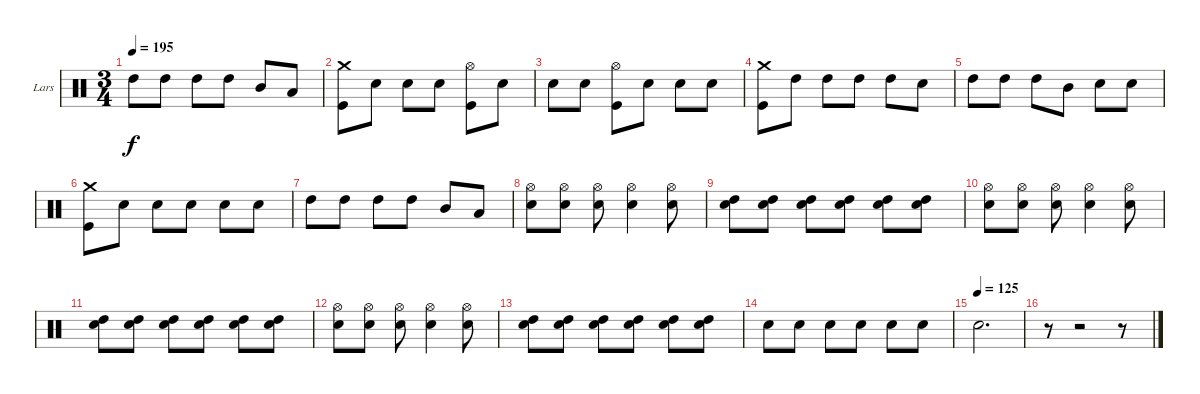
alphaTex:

\bracketExtendMode groupsimilarinstruments
\firstSystemTrackNameOrientation horizontal
\otherSystemsTrackNameOrientation horizontal
\track ("Drumkit" "Lars") {instrument percussion}
\staff {score}
\articulation defaults
\ts (3 4)
\tempo 195
\clef neutral
\ks c "High Tom (hit)".8{dy f} "High Tom (hit)".8 "High Tom (hit)".8 "High Tom (hit)".8 "Mid Tom (hit)".8 "Low Tom (hit)".8
|
("Crash medium (hit)" "Kick (hit)").8 "Snare (hit) 2".8 "Snare (hit) 2".8 "Snare (hit) 2".8 ("Hi-Hat (open)" "Kick (hit)").8 "Snare (hit) 2".8 |
"Snare (hit) 2".8 "Snare (hit) 2".8 ("Hi-Hat (open)" "Kick (hit)").8 "Snare (hit) 2".8 "Snare (hit) 2".8 "Snare (hit) 2".8 |
("Crash medium (hit)" "Kick (hit)").8 "High Tom (hit)".8 "High Tom (hit)".8 "High Tom (hit)".8 "High Tom (hit)".8 "Snare (hit) 2".8 |
"High Tom (hit)".8 "High Tom (hit)".8 "High Tom (hit)".8 "Mid Tom (hit)".8 "Snare (hit) 2".8 "Snare (hit) 2".8 |
("Crash medium (hit)" "Kick (hit)").8 "Snare (hit) 2".8 "Snare (hit) 2".8 "Snare (hit) 2".8 "Snare (hit) 2".8 "Snare (hit) 2".8 |
"High Tom (hit)".8 "High Tom (hit)".8 "High Tom (hit)".8 "High Tom (hit)".8 "Mid Tom (hit)".8 "Low Tom (hit)".8 |
("Hi-Hat (open)" "Snare (hit) 2").8 ("Hi-Hat (open)" "Snare (hit) 2").8 ("Hi-Hat (open)" "Snare (hit) 2").8 ("Hi-Hat (open)" "Snare (hit) 2").4 ("Hi-Hat (open)" "Snare (hit) 2").8 |
("Snare (hit) 2" "High Tom (hit)").8 ("Snare (hit) 2" "High Tom (hit)").8 ("Snare (hit) 2" "High Tom (hit)").8 ("Snare (hit) 2" "High Tom (hit)").8 ("Snare (hit) 2" "High Tom (hit)").8 ("Snare (hit) 2" "High Tom (hit)").8 |
("Hi-Hat (open)" "Snare (hit) 2").8 ("Hi-Hat (open)" "Snare (hit) 2").8 ("Hi-Hat (open)" "Snare (hit) 2").8 ("Hi-Hat (open)" "Snare (hit) 2").4 ("Hi-Hat (open)" "Snare (hit) 2").8 |
("Snare (hit) 2" "High Tom (hit)").8 ("Snare (hit) 2" "High Tom (hit)").8 ("Snare (hit) 2" "High Tom (hit)").8 ("Snare (hit) 2" "High Tom (hit)").8 ("Snare (hit) 2" "High Tom (hit)").8 ("Snare (hit) 2" "High Tom (hit)").8 |
("Hi-Hat (open)" "Snare (hit) 2").8 ("Hi-Hat (open)" "Snare (hit) 2").8 ("Hi-Hat (open)" "Snare (hit) 2").8 ("Hi-Hat (open)" "Snare (hit) 2").4 ("Hi-Hat (open)" "Snare (hit) 2").8 |
("Snare (hit) 2" "High Tom (hit)").8 ("Snare (hit) 2" "High Tom (hit)").8 ("Snare (hit) 2" "High Tom (hit)").8 ("Snare (hit) 2" "High Tom (hit)").8 ("Snare (hit) 2" "High Tom (hit)").8 ("Snare (hit) 2" "High Tom (hit)").8 |
"Snare (hit) 2".8 "Snare (hit) 2".8 "Snare (hit) 2".8 "Snare (hit) 2".8 "Snare (hit) 2".8 "Snare (hit) 2".8 |
\tempo (125)
"Snare (hit) 2".2{d} |
r.8 r.2 r.8
